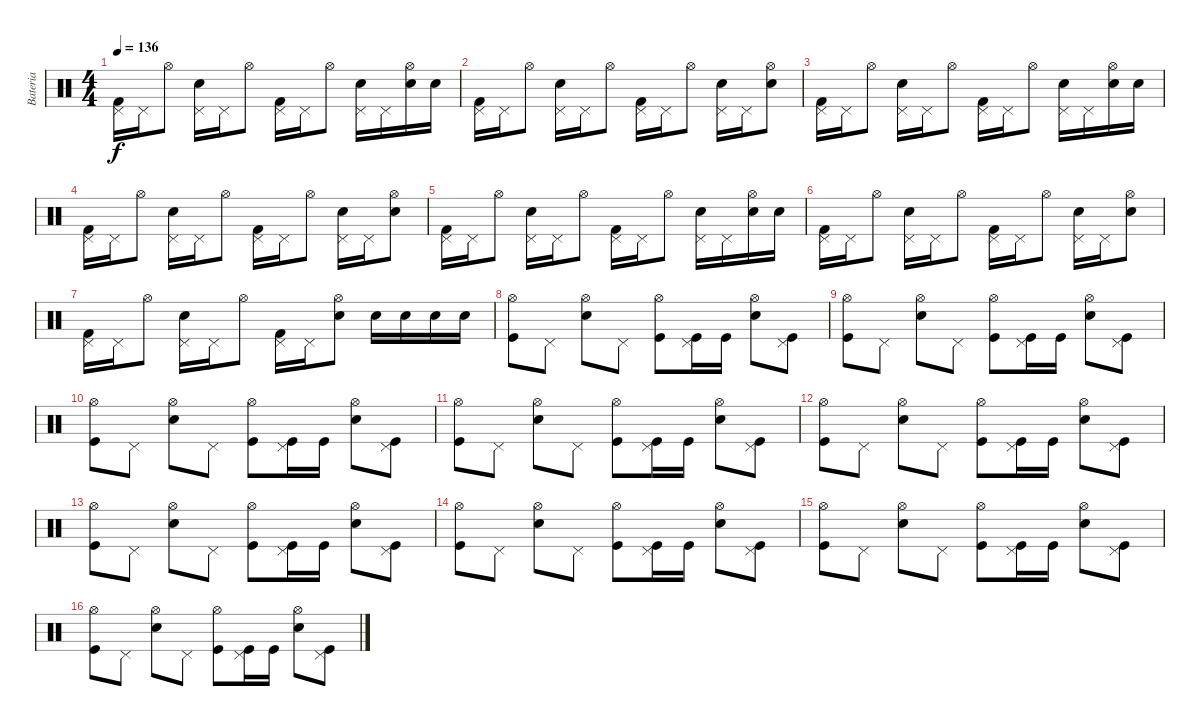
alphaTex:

\track ("Bateria" "Bateria") {instrument percussion}
\staff {score}
\articulation defaults
\ts (4 4)
\tempo 136
\clef neutral
\ks c
("Pedal Hi-Hat (hit)" "Kick (hit) 2").16{dy f} "Pedal Hi-Hat (hit)".16 "Hi-Hat (open)".8 ("Pedal Hi-Hat (hit)" "Electric Snare (hit)").16 "Pedal Hi-Hat (hit)".16 "Hi-Hat (open)".8 ("Pedal Hi-Hat (hit)" "Kick (hit) 2").16 "Pedal Hi-Hat (hit)".16 "Hi-Hat (open)".8 ("Pedal Hi-Hat (hit)" "Electric Snare (hit)").16 "Pedal Hi-Hat (hit)".16 ("Hi-Hat (open)" "Electric Snare (hit)").16 "Electric Snare (hit)".16 |
("Pedal Hi-Hat (hit)" "Kick (hit) 2").16 "Pedal Hi-Hat (hit)".16 "Hi-Hat (open)".8 ("Pedal Hi-Hat (hit)" "Electric Snare (hit)").16 "Pedal Hi-Hat (hit)".16 "Hi-Hat (open)".8 ("Pedal Hi-Hat (hit)" "Kick (hit) 2").16 "Pedal Hi-Hat (hit)".16 "Hi-Hat (open)".8 ("Pedal Hi-Hat (hit)" "Electric Snare (hit)").16 "Pedal Hi-Hat (hit)".16 ("Hi-Hat (open)" "Electric Snare (hit)").8 |
("Pedal Hi-Hat (hit)" "Kick (hit) 2").16 "Pedal Hi-Hat (hit)".16 "Hi-Hat (open)".8 ("Pedal Hi-Hat (hit)" "Electric Snare (hit)").16 "Pedal Hi-Hat (hit)".16 "Hi-Hat (open)".8 ("Pedal Hi-Hat (hit)" "Kick (hit) 2").16 "Pedal Hi-Hat (hit)".16 "Hi-Hat (open)".8 ("Pedal Hi-Hat (hit)" "Electric Snare (hit)").16 "Pedal Hi-Hat (hit)".16 ("Hi-Hat (open)" "Electric Snare (hit)").16 "Electric Snare (hit)".16 |
("Pedal Hi-Hat (hit)" "Kick (hit) 2").16 "Pedal Hi-Hat (hit)".16 "Hi-Hat (open)".8 ("Pedal Hi-Hat (hit)" "Electric Snare (hit)").16 "Pedal Hi-Hat (hit)".16 "Hi-Hat (open)".8 ("Pedal Hi-Hat (hit)" "Kick (hit) 2").16 "Pedal Hi-Hat (hit)".16 "Hi-Hat (open)".8 ("Pedal Hi-Hat (hit)" "Electric Snare (hit)").16 "Pedal Hi-Hat (hit)".16 ("Hi-Hat (open)" "Electric Snare (hit)").8 |
("Pedal Hi-Hat (hit)" "Kick (hit) 2").16 "Pedal Hi-Hat (hit)".16 "Hi-Hat (open)".8 ("Pedal Hi-Hat (hit)" "Electric Snare (hit)").16 "Pedal Hi-Hat (hit)".16 "Hi-Hat (open)".8 ("Pedal Hi-Hat (hit)" "Kick (hit) 2").16 "Pedal Hi-Hat (hit)".16 "Hi-Hat (open)".8 ("Pedal Hi-Hat (hit)" "Electric Snare (hit)").16 "Pedal Hi-Hat (hit)".16 ("Hi-Hat (open)" "Electric Snare (hit)").16 "Electric Snare (hit)".16 |
("Pedal Hi-Hat (hit)" "Kick (hit) 2").16 "Pedal Hi-Hat (hit)".16 "Hi-Hat (open)".8 ("Pedal Hi-Hat (hit)" "Electric Snare (hit)").16 "Pedal Hi-Hat (hit)".16 "Hi-Hat (open)".8 ("Pedal Hi-Hat (hit)" "Kick (hit) 2").16 "Pedal Hi-Hat (hit)".16 "Hi-Hat (open)".8 ("Pedal Hi-Hat (hit)" "Electric Snare (hit)").16 "Pedal Hi-Hat (hit)".16 ("Hi-Hat (open)" "Electric Snare (hit)").8 |
("Pedal Hi-Hat (hit)" "Kick (hit) 2").16 "Pedal Hi-Hat (hit)".16 "Hi-Hat (open)".8 ("Pedal Hi-Hat (hit)" "Electric Snare (hit)").16 "Pedal Hi-Hat (hit)".16 "Hi-Hat (open)".8 ("Pedal Hi-Hat (hit)" "Kick (hit) 2").16 "Pedal Hi-Hat (hit)".16 ("Hi-Hat (open)" "Electric Snare (hit)").8 "Electric Snare (hit)".16 "Electric Snare (hit)".16 "Electric Snare (hit)".16 "Electric Snare (hit)".16 |
("Hi-Hat (open)" "Kick (hit)").8 "Pedal Hi-Hat (hit)".8 ("Hi-Hat (open)" "Snare (hit) 2").8 "Pedal Hi-Hat (hit)".8 ("Hi-Hat (open)" "Kick (hit)").8 ("Pedal Hi-Hat (hit)" "Kick (hit)").16 "Kick (hit)".16 ("Hi-Hat (open)" "Snare (hit) 2").8 ("Pedal Hi-Hat (hit)" "Kick (hit)").8 |
("Hi-Hat (open)" "Kick (hit)").8 "Pedal Hi-Hat (hit)".8 ("Hi-Hat (open)" "Snare (hit) 2").8 "Pedal Hi-Hat (hit)".8 ("Hi-Hat (open)" "Kick (hit)").8 ("Pedal Hi-Hat (hit)" "Kick (hit)").16 "Kick (hit)".16 ("Hi-Hat (open)" "Snare (hit) 2").8 ("Pedal Hi-Hat (hit)" "Kick (hit)").8 |
("Hi-Hat (open)" "Kick (hit)").8 "Pedal Hi-Hat (hit)".8 ("Hi-Hat (open)" "Snare (hit) 2").8 "Pedal Hi-Hat (hit)".8 ("Hi-Hat (open)" "Kick (hit)").8 ("Pedal Hi-Hat (hit)" "Kick (hit)").16 "Kick (hit)".16 ("Hi-Hat (open)" "Snare (hit) 2").8 ("Pedal Hi-Hat (hit)" "Kick (hit)").8 |
("Hi-Hat (open)" "Kick (hit)").8 "Pedal Hi-Hat (hit)".8 ("Hi-Hat (open)" "Snare (hit) 2").8 "Pedal Hi-Hat (hit)".8 ("Hi-Hat (open)" "Kick (hit)").8 ("Pedal Hi-Hat (hit)" "Kick (hit)").16 "Kick (hit)".16 ("Hi-Hat (open)" "Snare (hit) 2").8 ("Pedal Hi-Hat (hit)" "Kick (hit)").8 |
("Hi-Hat (open)" "Kick (hit)").8 "Pedal Hi-Hat (hit)".8 ("Hi-Hat (open)" "Snare (hit) 2").8 "Pedal Hi-Hat (hit)".8 ("Hi-Hat (open)" "Kick (hit)").8 ("Pedal Hi-Hat (hit)" "Kick (hit)").16 "Kick (hit)".16 ("Hi-Hat (open)" "Snare (hit) 2").8 ("Pedal Hi-Hat (hit)" "Kick (hit)").8 |
("Hi-Hat (open)" "Kick (hit)").8 "Pedal Hi-Hat (hit)".8 ("Hi-Hat (open)" "Snare (hit) 2").8 "Pedal Hi-Hat (hit)".8 ("Hi-Hat (open)" "Kick (hit)").8 ("Pedal Hi-Hat (hit)" "Kick (hit)").16 "Kick (hit)".16 ("Hi-Hat (open)" "Snare (hit) 2").8 ("Pedal Hi-Hat (hit)" "Kick (hit)").8 |
("Hi-Hat (open)" "Kick (hit)").8 "Pedal Hi-Hat (hit)".8 ("Hi-Hat (open)" "Snare (hit) 2").8 "Pedal Hi-Hat (hit)".8 ("Hi-Hat (open)" "Kick (hit)").8 ("Pedal Hi-Hat (hit)" "Kick (hit)").16 "Kick (hit)".16 ("Hi-Hat (open)" "Snare (hit) 2").8 ("Pedal Hi-Hat (hit)" "Kick (hit)").8 |
("Hi-Hat (open)" "Kick (hit)").8 "Pedal Hi-Hat (hit)".8 ("Hi-Hat (open)" "Snare (hit) 2").8 "Pedal Hi-Hat (hit)".8 ("Hi-Hat (open)" "Kick (hit)").8 ("Pedal Hi-Hat (hit)" "Kick (hit)").16 "Kick (hit)".16 ("Hi-Hat (open)" "Snare (hit) 2").8 ("Pedal Hi-Hat (hit)" "Kick (hit)").8 |
("Hi-Hat (open)" "Kick (hit)").8 "Pedal Hi-Hat (hit)".8 ("Hi-Hat (open)" "Snare (hit) 2").8 "Pedal Hi-Hat (hit)".8 ("Hi-Hat (open)" "Kick (hit)").8 ("Pedal Hi-Hat (hit)" "Kick (hit)").16 "Kick (hit)".16 ("Hi-Hat (open)" "Snare (hit) 2").8 ("Pedal Hi-Hat (hit)" "Kick (hit)").8
